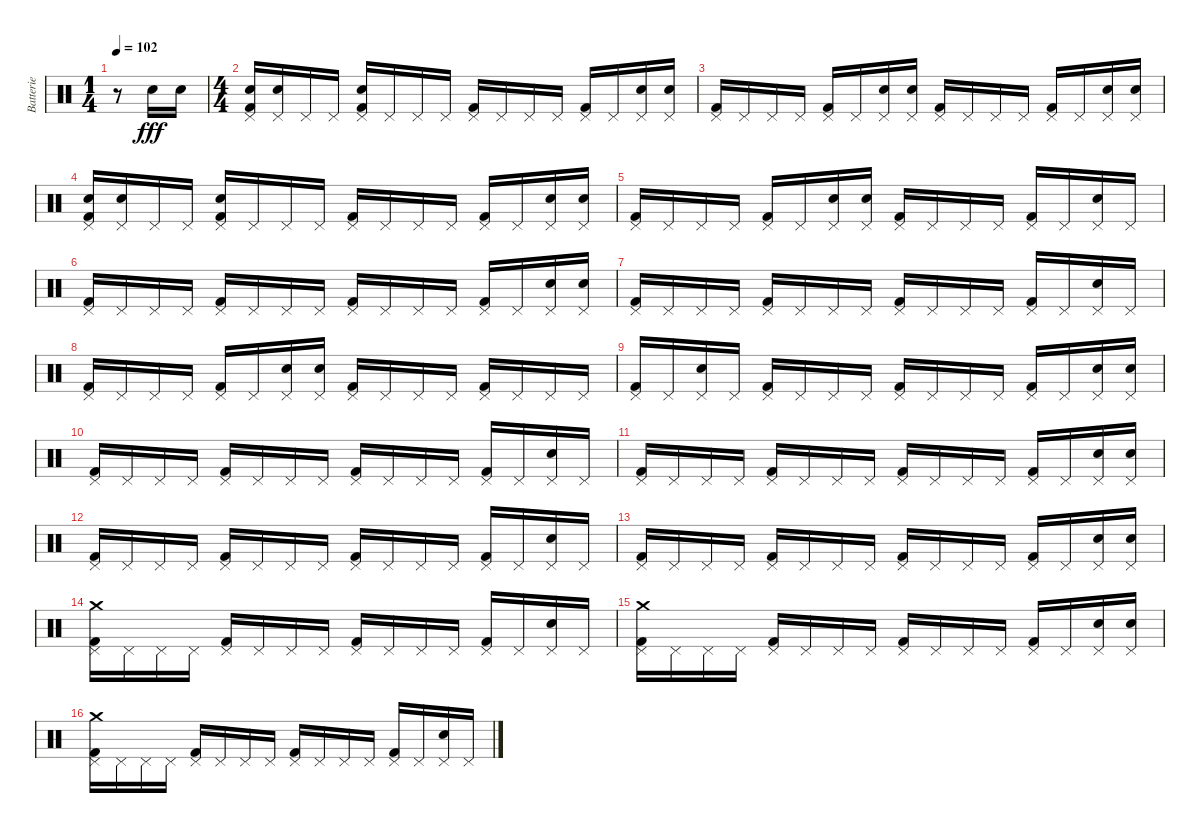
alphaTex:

\track ("Batterie" "Batterie") {instrument percussion}
\staff {score}
\articulation defaults
\ts (1 4)
\tempo 102
\clef neutral
\ks c
r.8{dy fff} "Electric Snare (hit)".16 "Electric Snare (hit)".16 |
\ts (4 4)
("Pedal Hi-Hat (hit)" "Electric Snare (hit)" "Kick (hit) 2").16 ("Pedal Hi-Hat (hit)" "Electric Snare (hit)").16 "Pedal Hi-Hat (hit)".16 "Pedal Hi-Hat (hit)".16 ("Pedal Hi-Hat (hit)" "Electric Snare (hit)" "Kick (hit) 2").16 "Pedal Hi-Hat (hit)".16 "Pedal Hi-Hat (hit)".16 "Pedal Hi-Hat (hit)".16 ("Pedal Hi-Hat (hit)" "Kick (hit) 2").16 "Pedal Hi-Hat (hit)".16 "Pedal Hi-Hat (hit)".16 "Pedal Hi-Hat (hit)".16 ("Pedal Hi-Hat (hit)" "Kick (hit) 2").16 "Pedal Hi-Hat (hit)".16 ("Pedal Hi-Hat (hit)" "Electric Snare (hit)").16 ("Pedal Hi-Hat (hit)" "Electric Snare (hit)").16 |
("Pedal Hi-Hat (hit)" "Kick (hit) 2").16 "Pedal Hi-Hat (hit)".16 "Pedal Hi-Hat (hit)".16 "Pedal Hi-Hat (hit)".16 ("Pedal Hi-Hat (hit)" "Kick (hit) 2").16 "Pedal Hi-Hat (hit)".16 ("Pedal Hi-Hat (hit)" "Electric Snare (hit)").16 ("Pedal Hi-Hat (hit)" "Electric Snare (hit)").16 ("Pedal Hi-Hat (hit)" "Kick (hit) 2").16 "Pedal Hi-Hat (hit)".16 "Pedal Hi-Hat (hit)".16 "Pedal Hi-Hat (hit)".16 ("Pedal Hi-Hat (hit)" "Kick (hit) 2").16 "Pedal Hi-Hat (hit)".16 ("Pedal Hi-Hat (hit)" "Electric Snare (hit)").16 ("Pedal Hi-Hat (hit)" "Electric Snare (hit)").16 |
("Pedal Hi-Hat (hit)" "Electric Snare (hit)" "Kick (hit) 2").16 ("Pedal Hi-Hat (hit)" "Electric Snare (hit)").16 "Pedal Hi-Hat (hit)".16 "Pedal Hi-Hat (hit)".16 ("Pedal Hi-Hat (hit)" "Electric Snare (hit)" "Kick (hit) 2").16 "Pedal Hi-Hat (hit)".16 "Pedal Hi-Hat (hit)".16 "Pedal Hi-Hat (hit)".16 ("Pedal Hi-Hat (hit)" "Kick (hit) 2").16 "Pedal Hi-Hat (hit)".16 "Pedal Hi-Hat (hit)".16 "Pedal Hi-Hat (hit)".16 ("Pedal Hi-Hat (hit)" "Kick (hit) 2").16 "Pedal Hi-Hat (hit)".16 ("Pedal Hi-Hat (hit)" "Electric Snare (hit)").16 ("Pedal Hi-Hat (hit)" "Electric Snare (hit)").16 |
("Pedal Hi-Hat (hit)" "Kick (hit) 2").16 "Pedal Hi-Hat (hit)".16 "Pedal Hi-Hat (hit)".16 "Pedal Hi-Hat (hit)".16 ("Pedal Hi-Hat (hit)" "Kick (hit) 2").16 "Pedal Hi-Hat (hit)".16 ("Pedal Hi-Hat (hit)" "Electric Snare (hit)").16 ("Pedal Hi-Hat (hit)" "Electric Snare (hit)").16 ("Pedal Hi-Hat (hit)" "Kick (hit) 2").16 "Pedal Hi-Hat (hit)".16 "Pedal Hi-Hat (hit)".16 "Pedal Hi-Hat (hit)".16 ("Pedal Hi-Hat (hit)" "Kick (hit) 2").16 "Pedal Hi-Hat (hit)".16 ("Pedal Hi-Hat (hit)" "Electric Snare (hit)").16 "Pedal Hi-Hat (hit)".16 |
("Pedal Hi-Hat (hit)" "Kick (hit) 2").16 "Pedal Hi-Hat (hit)".16 "Pedal Hi-Hat (hit)".16 "Pedal Hi-Hat (hit)".16 ("Pedal Hi-Hat (hit)" "Kick (hit) 2").16 "Pedal Hi-Hat (hit)".16 "Pedal Hi-Hat (hit)".16 "Pedal Hi-Hat (hit)".16 ("Pedal Hi-Hat (hit)" "Kick (hit) 2").16 "Pedal Hi-Hat (hit)".16 "Pedal Hi-Hat (hit)".16 "Pedal Hi-Hat (hit)".16 ("Pedal Hi-Hat (hit)" "Kick (hit) 2").16 "Pedal Hi-Hat (hit)".16 ("Pedal Hi-Hat (hit)" "Electric Snare (hit)").16 ("Pedal Hi-Hat (hit)" "Electric Snare (hit)").16 |
("Pedal Hi-Hat (hit)" "Kick (hit) 2").16 "Pedal Hi-Hat (hit)".16 "Pedal Hi-Hat (hit)".16 "Pedal Hi-Hat (hit)".16 ("Pedal Hi-Hat (hit)" "Kick (hit) 2").16 "Pedal Hi-Hat (hit)".16 "Pedal Hi-Hat (hit)".16 "Pedal Hi-Hat (hit)".16 ("Pedal Hi-Hat (hit)" "Kick (hit) 2").16 "Pedal Hi-Hat (hit)".16 "Pedal Hi-Hat (hit)".16 "Pedal Hi-Hat (hit)".16 ("Pedal Hi-Hat (hit)" "Kick (hit) 2").16 "Pedal Hi-Hat (hit)".16 ("Pedal Hi-Hat (hit)" "Electric Snare (hit)").16 "Pedal Hi-Hat (hit)".16 |
("Pedal Hi-Hat (hit)" "Kick (hit) 2").16 "Pedal Hi-Hat (hit)".16 "Pedal Hi-Hat (hit)".16 "Pedal Hi-Hat (hit)".16 ("Pedal Hi-Hat (hit)" "Kick (hit) 2").16 "Pedal Hi-Hat (hit)".16 ("Pedal Hi-Hat (hit)" "Electric Snare (hit)").16 ("Pedal Hi-Hat (hit)" "Electric Snare (hit)").16 ("Pedal Hi-Hat (hit)" "Kick (hit) 2").16 "Pedal Hi-Hat (hit)".16 "Pedal Hi-Hat (hit)".16 "Pedal Hi-Hat (hit)".16 ("Pedal Hi-Hat (hit)" "Kick (hit) 2").16 "Pedal Hi-Hat (hit)".16 "Pedal Hi-Hat (hit)".16 "Pedal Hi-Hat (hit)".16 |
("Pedal Hi-Hat (hit)" "Kick (hit) 2").16 "Pedal Hi-Hat (hit)".16 ("Pedal Hi-Hat (hit)" "Electric Snare (hit)").16 "Pedal Hi-Hat (hit)".16 ("Pedal Hi-Hat (hit)" "Kick (hit) 2").16 "Pedal Hi-Hat (hit)".16 "Pedal Hi-Hat (hit)".16 "Pedal Hi-Hat (hit)".16 ("Pedal Hi-Hat (hit)" "Kick (hit) 2").16 "Pedal Hi-Hat (hit)".16 "Pedal Hi-Hat (hit)".16 "Pedal Hi-Hat (hit)".16 ("Pedal Hi-Hat (hit)" "Kick (hit) 2").16 "Pedal Hi-Hat (hit)".16 ("Pedal Hi-Hat (hit)" "Electric Snare (hit)").16 ("Pedal Hi-Hat (hit)" "Electric Snare (hit)").16 |
("Pedal Hi-Hat (hit)" "Kick (hit) 2").16 "Pedal Hi-Hat (hit)".16 "Pedal Hi-Hat (hit)".16 "Pedal Hi-Hat (hit)".16 ("Pedal Hi-Hat (hit)" "Kick (hit) 2").16 "Pedal Hi-Hat (hit)".16 "Pedal Hi-Hat (hit)".16 "Pedal Hi-Hat (hit)".16 ("Pedal Hi-Hat (hit)" "Kick (hit) 2").16 "Pedal Hi-Hat (hit)".16 "Pedal Hi-Hat (hit)".16 "Pedal Hi-Hat (hit)".16 ("Pedal Hi-Hat (hit)" "Kick (hit) 2").16 "Pedal Hi-Hat (hit)".16 ("Pedal Hi-Hat (hit)" "Electric Snare (hit)").16 "Pedal Hi-Hat (hit)".16 |
("Pedal Hi-Hat (hit)" "Kick (hit) 2").16 "Pedal Hi-Hat (hit)".16 "Pedal Hi-Hat (hit)".16 "Pedal Hi-Hat (hit)".16 ("Pedal Hi-Hat (hit)" "Kick (hit) 2").16 "Pedal Hi-Hat (hit)".16 "Pedal Hi-Hat (hit)".16 "Pedal Hi-Hat (hit)".16 ("Pedal Hi-Hat (hit)" "Kick (hit) 2").16 "Pedal Hi-Hat (hit)".16 "Pedal Hi-Hat (hit)".16 "Pedal Hi-Hat (hit)".16 ("Pedal Hi-Hat (hit)" "Kick (hit) 2").16 "Pedal Hi-Hat (hit)".16 ("Pedal Hi-Hat (hit)" "Electric Snare (hit)").16 ("Pedal Hi-Hat (hit)" "Electric Snare (hit)").16 |
("Pedal Hi-Hat (hit)" "Kick (hit) 2").16 "Pedal Hi-Hat (hit)".16 "Pedal Hi-Hat (hit)".16 "Pedal Hi-Hat (hit)".16 ("Pedal Hi-Hat (hit)" "Kick (hit) 2").16 "Pedal Hi-Hat (hit)".16 "Pedal Hi-Hat (hit)".16 "Pedal Hi-Hat (hit)".16 ("Pedal Hi-Hat (hit)" "Kick (hit) 2").16 "Pedal Hi-Hat (hit)".16 "Pedal Hi-Hat (hit)".16 "Pedal Hi-Hat (hit)".16 ("Pedal Hi-Hat (hit)" "Kick (hit) 2").16 "Pedal Hi-Hat (hit)".16 ("Pedal Hi-Hat (hit)" "Electric Snare (hit)").16 "Pedal Hi-Hat (hit)".16 |
("Pedal Hi-Hat (hit)" "Kick (hit) 2").16 "Pedal Hi-Hat (hit)".16 "Pedal Hi-Hat (hit)".16 "Pedal Hi-Hat (hit)".16 ("Pedal Hi-Hat (hit)" "Kick (hit) 2").16 "Pedal Hi-Hat (hit)".16 "Pedal Hi-Hat (hit)".16 "Pedal Hi-Hat (hit)".16 ("Pedal Hi-Hat (hit)" "Kick (hit) 2").16 "Pedal Hi-Hat (hit)".16 "Pedal Hi-Hat (hit)".16 "Pedal Hi-Hat (hit)".16 ("Pedal Hi-Hat (hit)" "Kick (hit) 2").16 "Pedal Hi-Hat (hit)".16 ("Pedal Hi-Hat (hit)" "Electric Snare (hit)").16 ("Pedal Hi-Hat (hit)" "Electric Snare (hit)").16 |
("Crash medium (hit)" "Pedal Hi-Hat (hit)" "Kick (hit) 2").16 "Pedal Hi-Hat (hit)".16 "Pedal Hi-Hat (hit)".16 "Pedal Hi-Hat (hit)".16 ("Pedal Hi-Hat (hit)" "Kick (hit) 2").16 "Pedal Hi-Hat (hit)".16 "Pedal Hi-Hat (hit)".16 "Pedal Hi-Hat (hit)".16 ("Pedal Hi-Hat (hit)" "Kick (hit) 2").16 "Pedal Hi-Hat (hit)".16 "Pedal Hi-Hat (hit)".16 "Pedal Hi-Hat (hit)".16 ("Pedal Hi-Hat (hit)" "Kick (hit) 2").16 "Pedal Hi-Hat (hit)".16 ("Pedal Hi-Hat (hit)" "Electric Snare (hit)").16 "Pedal Hi-Hat (hit)".16 |
("Crash medium (hit)" "Pedal Hi-Hat (hit)" "Kick (hit) 2").16 "Pedal Hi-Hat (hit)".16 "Pedal Hi-Hat (hit)".16 "Pedal Hi-Hat (hit)".16 ("Pedal Hi-Hat (hit)" "Kick (hit) 2").16 "Pedal Hi-Hat (hit)".16 "Pedal Hi-Hat (hit)".16 "Pedal Hi-Hat (hit)".16 ("Pedal Hi-Hat (hit)" "Kick (hit) 2").16 "Pedal Hi-Hat (hit)".16 "Pedal Hi-Hat (hit)".16 "Pedal Hi-Hat (hit)".16 ("Pedal Hi-Hat (hit)" "Kick (hit) 2").16 "Pedal Hi-Hat (hit)".16 ("Pedal Hi-Hat (hit)" "Electric Snare (hit)").16 ("Pedal Hi-Hat (hit)" "Electric Snare (hit)").16 |
("Crash medium (hit)" "Pedal Hi-Hat (hit)" "Kick (hit) 2").16 "Pedal Hi-Hat (hit)".16 "Pedal Hi-Hat (hit)".16 "Pedal Hi-Hat (hit)".16 ("Pedal Hi-Hat (hit)" "Kick (hit) 2").16 "Pedal Hi-Hat (hit)".16 "Pedal Hi-Hat (hit)".16 "Pedal Hi-Hat (hit)".16 ("Pedal Hi-Hat (hit)" "Kick (hit) 2").16 "Pedal Hi-Hat (hit)".16 "Pedal Hi-Hat (hit)".16 "Pedal Hi-Hat (hit)".16 ("Pedal Hi-Hat (hit)" "Kick (hit) 2").16 "Pedal Hi-Hat (hit)".16 ("Pedal Hi-Hat (hit)" "Electric Snare (hit)").16 "Pedal Hi-Hat (hit)".16
